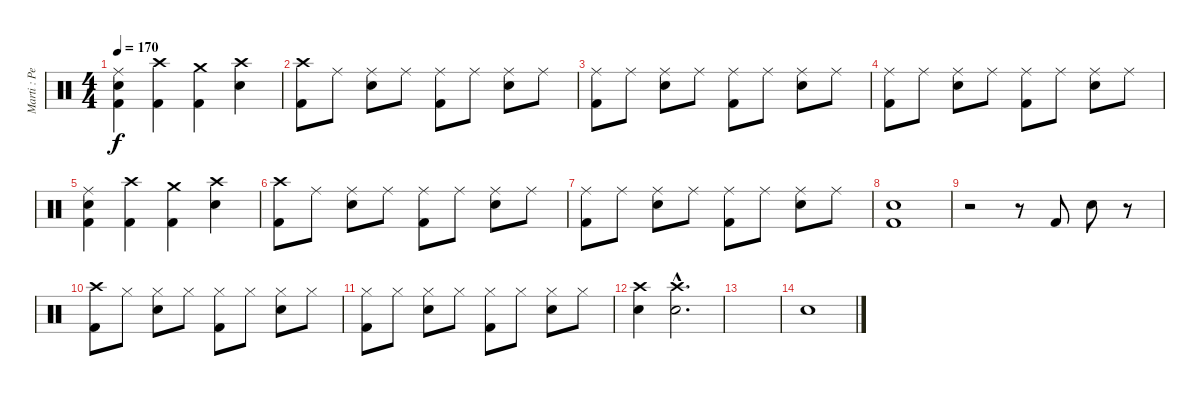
\track ("Marti : Percussion" "Marti : Pe") {instrument percussion}
\staff {score}
\articulation defaults
\ts (4 4)
\tempo 170
\clef neutral
\ks c
("Kick (hit) 2" "Electric Snare (hit)" "Ride (middle)").4{dy f} ("Kick (hit) 2" "Crash high (hit)").4 ("Kick (hit) 2" "Crash medium (hit)").4 ("Electric Snare (hit)" "Crash high (hit)").4 |
("Kick (hit) 2" "Crash high (hit)").8 "Ride (middle)".8 ("Electric Snare (hit)" "Ride (middle)").8 "Ride (middle)".8 ("Kick (hit) 2" "Ride (middle)").8 "Ride (middle)".8 ("Electric Snare (hit)" "Ride (middle)").8 "Ride (middle)".8 |
("Kick (hit) 2" "Ride (middle)").8 "Ride (middle)".8 ("Electric Snare (hit)" "Ride (middle)").8 "Ride (middle)".8 ("Kick (hit) 2" "Ride (middle)").8 "Ride (middle)".8 ("Electric Snare (hit)" "Ride (middle)").8 "Ride (middle)".8 |
("Kick (hit) 2" "Ride (middle)").8 "Ride (middle)".8 ("Electric Snare (hit)" "Ride (middle)").8 "Ride (middle)".8 ("Kick (hit) 2" "Ride (middle)").8 "Ride (middle)".8 ("Electric Snare (hit)" "Ride (middle)").8 "Ride (middle)".8 |
("Kick (hit) 2" "Electric Snare (hit)" "Ride (middle)").4 ("Kick (hit) 2" "Crash high (hit)").4 ("Kick (hit) 2" "Crash medium (hit)").4 ("Electric Snare (hit)" "Crash high (hit)").4 |
("Kick (hit) 2" "Crash high (hit)").8 "Ride (middle)".8 ("Electric Snare (hit)" "Ride (middle)").8 "Ride (middle)".8 ("Kick (hit) 2" "Ride (middle)").8 "Ride (middle)".8 ("Electric Snare (hit)" "Ride (middle)").8 "Ride (middle)".8 |
("Kick (hit) 2" "Ride (middle)").8 "Ride (middle)".8 ("Electric Snare (hit)" "Ride (middle)").8 "Ride (middle)".8 ("Kick (hit) 2" "Ride (middle)").8 "Ride (middle)".8 ("Electric Snare (hit)" "Ride (middle)").8 "Ride (middle)".8 |
("Electric Snare (hit)" "Kick (hit) 2").1 |
r.2 r.8 "Kick (hit) 2".8 "Electric Snare (hit)".8 r.8 |
("Kick (hit) 2" "Crash high (hit)").8 "Hi-Hat (closed)".8 ("Electric Snare (hit)" "Hi-Hat (closed)").8 "Hi-Hat (closed)".8 ("Kick (hit) 2" "Hi-Hat (closed)").8 "Hi-Hat (closed)".8 ("Electric Snare (hit)" "Hi-Hat (closed)").8 "Hi-Hat (closed)".8 |
("Kick (hit) 2" "Hi-Hat (closed)").8 "Hi-Hat (closed)".8 ("Electric Snare (hit)" "Hi-Hat (closed)").8 "Hi-Hat (closed)".8 ("Kick (hit) 2" "Hi-Hat (closed)").8 "Hi-Hat (closed)".8 ("Electric Snare (hit)" "Hi-Hat (closed)").8 "Hi-Hat (closed)".8 |
("Crash high (hit)" "Electric Snare (hit)").4 ("Electric Snare (hit)"{hac} "Crash high (hit)"{hac}).2{d} |
|
"Electric Snare (hit)".1
